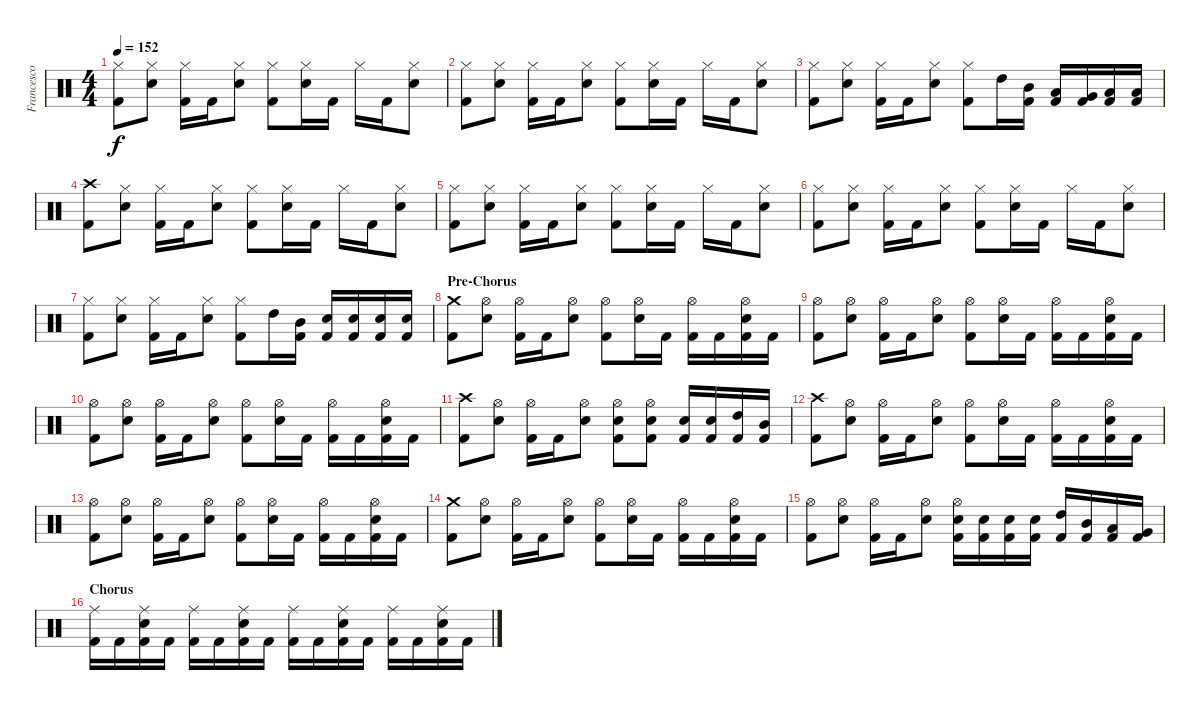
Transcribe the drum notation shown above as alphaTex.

\track ("Francesco Tresa" "Francesco ") {instrument percussion}
\staff {score}
\articulation defaults
\ts (4 4)
\tempo 152
\clef neutral
\ks c
("Kick (hit) 2" "Hi-Hat (closed)").8{dy f} ("Snare (hit) 2" "Hi-Hat (closed)").8 ("Kick (hit) 2" "Hi-Hat (closed)").16 "Kick (hit) 2".16 ("Snare (hit) 2" "Hi-Hat (closed)").8 ("Kick (hit) 2" "Hi-Hat (closed)").8 ("Snare (hit) 2" "Hi-Hat (closed)").16 "Kick (hit) 2".16 "Hi-Hat (closed)".16 "Kick (hit) 2".16 ("Snare (hit) 2" "Hi-Hat (closed)").8 |
("Kick (hit) 2" "Hi-Hat (closed)").8 ("Snare (hit) 2" "Hi-Hat (closed)").8 ("Kick (hit) 2" "Hi-Hat (closed)").16 "Kick (hit) 2".16 ("Snare (hit) 2" "Hi-Hat (closed)").8 ("Kick (hit) 2" "Hi-Hat (closed)").8 ("Snare (hit) 2" "Hi-Hat (closed)").16 "Kick (hit) 2".16 "Hi-Hat (closed)".16 "Kick (hit) 2".16 ("Snare (hit) 2" "Hi-Hat (closed)").8 |
("Kick (hit) 2" "Hi-Hat (closed)").8 ("Snare (hit) 2" "Hi-Hat (closed)").8 ("Kick (hit) 2" "Hi-Hat (closed)").16 "Kick (hit) 2".16 ("Snare (hit) 2" "Hi-Hat (closed)").8 ("Kick (hit) 2" "Hi-Hat (closed)").8 "High Tom (hit)".16 ("Kick (hit) 2" "Mid Tom (hit)").16 ("Kick (hit) 2" "Low Tom (hit)").16 ("Kick (hit) 2" "Very Low Tom (hit)").16 ("Kick (hit) 2" "Low Floor Tom (hit)").16 ("Kick (hit) 2" "Low Floor Tom (hit)").16 |
("Kick (hit) 2" "Crash high (hit)").8 ("Snare (hit) 2" "Hi-Hat (closed)").8 ("Kick (hit) 2" "Hi-Hat (closed)").16 "Kick (hit) 2".16 ("Snare (hit) 2" "Hi-Hat (closed)").8 ("Kick (hit) 2" "Hi-Hat (closed)").8 ("Snare (hit) 2" "Hi-Hat (closed)").16 "Kick (hit) 2".16 "Hi-Hat (closed)".16 "Kick (hit) 2".16 ("Snare (hit) 2" "Hi-Hat (closed)").8 |
("Kick (hit) 2" "Hi-Hat (closed)").8 ("Snare (hit) 2" "Hi-Hat (closed)").8 ("Kick (hit) 2" "Hi-Hat (closed)").16 "Kick (hit) 2".16 ("Snare (hit) 2" "Hi-Hat (closed)").8 ("Kick (hit) 2" "Hi-Hat (closed)").8 ("Snare (hit) 2" "Hi-Hat (closed)").16 "Kick (hit) 2".16 "Hi-Hat (closed)".16 "Kick (hit) 2".16 ("Snare (hit) 2" "Hi-Hat (closed)").8 |
("Kick (hit) 2" "Hi-Hat (closed)").8 ("Snare (hit) 2" "Hi-Hat (closed)").8 ("Kick (hit) 2" "Hi-Hat (closed)").16 "Kick (hit) 2".16 ("Snare (hit) 2" "Hi-Hat (closed)").8 ("Kick (hit) 2" "Hi-Hat (closed)").8 ("Snare (hit) 2" "Hi-Hat (closed)").16 "Kick (hit) 2".16 "Hi-Hat (closed)".16 "Kick (hit) 2".16 ("Snare (hit) 2" "Hi-Hat (closed)").8 |
("Kick (hit) 2" "Hi-Hat (closed)").8 ("Snare (hit) 2" "Hi-Hat (closed)").8 ("Kick (hit) 2" "Hi-Hat (closed)").16 "Kick (hit) 2".16 ("Snare (hit) 2" "Hi-Hat (closed)").8 ("Kick (hit) 2" "Hi-Hat (closed)").8 "High Tom (hit)".16 ("Kick (hit) 2" "Mid Tom (hit)").16 ("Kick (hit) 2" "Snare (hit) 2").16 ("Kick (hit) 2" "Snare (hit) 2").16 ("Kick (hit) 2" "Snare (hit) 2").16 ("Kick (hit) 2" "Snare (hit) 2").16 |
\section ("" "Pre-Chorus")
("Kick (hit) 2" "Crash medium (hit)").8 ("Snare (hit) 2" "Hi-Hat (open)").8 ("Kick (hit) 2" "Hi-Hat (open)").16 "Kick (hit) 2".16 ("Snare (hit) 2" "Hi-Hat (open)").8 ("Kick (hit) 2" "Hi-Hat (open)").8 ("Snare (hit) 2" "Hi-Hat (open)").16 "Kick (hit) 2".16 ("Kick (hit) 2" "Hi-Hat (open)").16 "Kick (hit) 2".16 ("Kick (hit) 2" "Snare (hit) 2" "Hi-Hat (open)").16 "Kick (hit) 2".16 |
("Kick (hit) 2" "Hi-Hat (open)").8 ("Snare (hit) 2" "Hi-Hat (open)").8 ("Kick (hit) 2" "Hi-Hat (open)").16 "Kick (hit) 2".16 ("Snare (hit) 2" "Hi-Hat (open)").8 ("Kick (hit) 2" "Hi-Hat (open)").8 ("Snare (hit) 2" "Hi-Hat (open)").16 "Kick (hit) 2".16 ("Kick (hit) 2" "Hi-Hat (open)").16 "Kick (hit) 2".16 ("Kick (hit) 2" "Snare (hit) 2" "Hi-Hat (open)").16 "Kick (hit) 2".16 |
("Kick (hit) 2" "Hi-Hat (open)").8 ("Snare (hit) 2" "Hi-Hat (open)").8 ("Kick (hit) 2" "Hi-Hat (open)").16 "Kick (hit) 2".16 ("Snare (hit) 2" "Hi-Hat (open)").8 ("Kick (hit) 2" "Hi-Hat (open)").8 ("Snare (hit) 2" "Hi-Hat (open)").16 "Kick (hit) 2".16 ("Kick (hit) 2" "Hi-Hat (open)").16 "Kick (hit) 2".16 ("Kick (hit) 2" "Snare (hit) 2" "Hi-Hat (open)").16 "Kick (hit) 2".16 |
("Kick (hit) 2" "Crash high (hit)").8 ("Snare (hit) 2" "Hi-Hat (open)").8 ("Kick (hit) 2" "Hi-Hat (open)").16 "Kick (hit) 2".16 ("Snare (hit) 2" "Hi-Hat (open)").8 ("Kick (hit) 2" "Snare (hit) 2" "Hi-Hat (open)").8 ("Kick (hit) 2" "Snare (hit) 2" "Hi-Hat (open)").8 ("Kick (hit) 2" "Snare (hit) 2").16 ("Kick (hit) 2" "Snare (hit) 2").16 ("Kick (hit) 2" "High Tom (hit)").16 ("Kick (hit) 2" "Mid Tom (hit)").16 |
("Kick (hit) 2" "Crash high (hit)").8 ("Snare (hit) 2" "Hi-Hat (open)").8 ("Kick (hit) 2" "Hi-Hat (open)").16 "Kick (hit) 2".16 ("Snare (hit) 2" "Hi-Hat (open)").8 ("Kick (hit) 2" "Hi-Hat (open)").8 ("Snare (hit) 2" "Hi-Hat (open)").16 "Kick (hit) 2".16 ("Kick (hit) 2" "Hi-Hat (open)").16 "Kick (hit) 2".16 ("Kick (hit) 2" "Snare (hit) 2" "Hi-Hat (open)").16 "Kick (hit) 2".16 |
("Kick (hit) 2" "Hi-Hat (open)").8 ("Snare (hit) 2" "Hi-Hat (open)").8 ("Kick (hit) 2" "Hi-Hat (open)").16 "Kick (hit) 2".16 ("Snare (hit) 2" "Hi-Hat (open)").8 ("Kick (hit) 2" "Hi-Hat (open)").8 ("Snare (hit) 2" "Hi-Hat (open)").16 "Kick (hit) 2".16 ("Kick (hit) 2" "Hi-Hat (open)").16 "Kick (hit) 2".16 ("Kick (hit) 2" "Snare (hit) 2" "Hi-Hat (open)").16 "Kick (hit) 2".16 |
("Kick (hit) 2" "Crash medium (hit)").8 ("Snare (hit) 2" "Hi-Hat (open)").8 ("Kick (hit) 2" "Hi-Hat (open)").16 "Kick (hit) 2".16 ("Snare (hit) 2" "Hi-Hat (open)").8 ("Kick (hit) 2" "Hi-Hat (open)").8 ("Snare (hit) 2" "Hi-Hat (open)").16 "Kick (hit) 2".16 ("Kick (hit) 2" "Hi-Hat (open)").16 "Kick (hit) 2".16 ("Kick (hit) 2" "Snare (hit) 2" "Hi-Hat (open)").16 "Kick (hit) 2".16 |
("Kick (hit) 2" "Hi-Hat (open)").8 ("Snare (hit) 2" "Hi-Hat (open)").8 ("Kick (hit) 2" "Hi-Hat (open)").16 "Kick (hit) 2".16 ("Snare (hit) 2" "Hi-Hat (open)").8 ("Kick (hit) 2" "Snare (hit) 2" "Hi-Hat (open)").16 ("Kick (hit) 2" "Snare (hit) 2").16 ("Kick (hit) 2" "Snare (hit) 2").16 ("Kick (hit) 2" "Snare (hit) 2").16 ("Kick (hit) 2" "High Tom (hit)").16 ("Kick (hit) 2" "Mid Tom (hit)").16 ("Kick (hit) 2" "Low Tom (hit)").16 ("Kick (hit) 2" "Very Low Tom (hit)").16 |
\section ("" "Chorus")
("Kick (hit) 2" "Ride (middle)").16 "Kick (hit) 2".16 ("Kick (hit) 2" "Snare (hit) 2" "Ride (middle)").16 "Kick (hit) 2".16 ("Kick (hit) 2" "Ride (middle)").16 "Kick (hit) 2".16 ("Kick (hit) 2" "Snare (hit) 2" "Ride (middle)").16 "Kick (hit) 2".16 ("Kick (hit) 2" "Ride (middle)").16 "Kick (hit) 2".16 ("Kick (hit) 2" "Snare (hit) 2" "Ride (middle)").16 "Kick (hit) 2".16 ("Kick (hit) 2" "Ride (middle)").16 "Kick (hit) 2".16 ("Kick (hit) 2" "Snare (hit) 2" "Ride (middle)").16 "Kick (hit) 2".16
